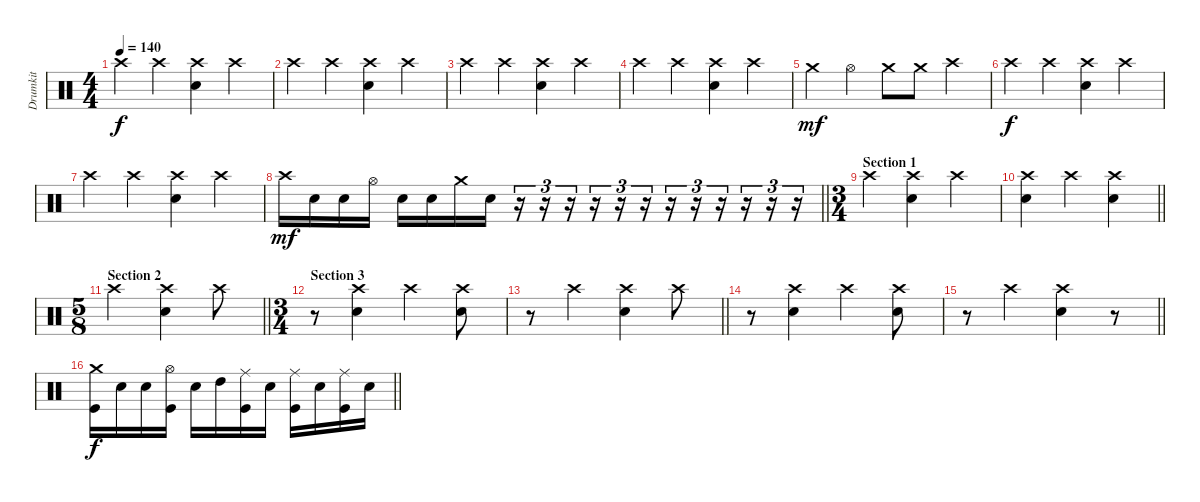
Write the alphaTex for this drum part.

\track ("Drumkit" "Drumkit") {instrument percussion}
\staff {score}
\articulation defaults
\ts (4 4)
\tempo 140
\clef neutral
\ks c "Crash high (hit)".4{dy f} "Crash high (hit)".4
("Crash high (hit)" "Snare (hit) 2").4 "Crash high (hit)".4 |
"Crash high (hit)".4 "Crash high (hit)".4 ("Crash high (hit)" "Snare (hit) 2").4 "Crash high (hit)".4 |
"Crash high (hit)".4 "Crash high (hit)".4 ("Crash high (hit)" "Snare (hit) 2").4 "Crash high (hit)".4 |
"Crash high (hit)".4 "Crash high (hit)".4 ("Crash high (hit)" "Snare (hit) 2").4 "Crash high (hit)".4 |
"Crash medium (hit)".4{dy mf} "Hi-Hat (open)".4 "Crash medium (hit)".8 "Crash medium (hit)".8 "Crash high (hit)".4 |
"Crash high (hit)".4{dy f} "Crash high (hit)".4 ("Crash high (hit)" "Snare (hit) 2").4 "Crash high (hit)".4 |
"Crash high (hit)".4 "Crash high (hit)".4 ("Crash high (hit)" "Snare (hit) 2").4 "Crash high (hit)".4 |
\barLineRight lightlight "Crash high (hit)".16{dy mf} "Snare (hit) 2".16 "Snare (hit) 2".16 "Hi-Hat (open)".16 "Snare (hit) 2".16 "Snare (hit) 2".16 "Crash medium (hit)".16 "Snare (hit) 2".16
r.16{tu (3 2)} r.16{tu (3 2)} r.16{tu (3 2)} r.16{tu (3 2)} r.16{tu (3 2)} r.16{tu (3 2)} r.16{tu (3 2)} r.16{tu (3 2)} r.16{tu (3 2)} r.16{tu (3 2)} r.16{tu (3 2)} r.16{tu (3 2)} |
\ts (3 4)
\section ("" "Section 1")
"Crash high (hit)".4 ("Crash high (hit)" "Snare (hit) 2").4 "Crash high (hit)".4 |
\barLineRight lightlight
("Crash high (hit)" "Snare (hit) 2").4 "Crash high (hit)".4 ("Crash high (hit)" "Snare (hit) 2").4 |
\ts (5 8)
\section ("" "Section 2")
\barLineRight lightlight "Crash high (hit)".4
("Crash high (hit)" "Snare (hit) 2").4 "Crash high (hit)".8 |
\ts (3 4)
\section ("" "Section 3")
r.8 ("Crash high (hit)" "Snare (hit) 2").4 "Crash high (hit)".4 ("Crash high (hit)" "Snare (hit) 2").8 |
\barLineRight lightlight
r.8 "Crash high (hit)".4 ("Crash high (hit)" "Snare (hit) 2").4 "Crash high (hit)".8 |
r.8 ("Crash high (hit)" "Snare (hit) 2").4 "Crash high (hit)".4 ("Crash high (hit)" "Snare (hit) 2").8 |
\barLineRight lightlight
r.8 "Crash high (hit)".4 ("Crash high (hit)" "Snare (hit) 2").4 r.8 |
\barLineRight lightlight
("Crash medium (hit)" "Kick (hit)").16{dy f} "Snare (hit) 2".16 "Snare (hit) 2".16 ("Hi-Hat (open)" "Kick (hit)").16 "Snare (hit) 2".16 "High Tom (hit)".16 ("Kick (hit)" "Ride (middle)").16 "Snare (hit) 2".16 ("Kick (hit)" "Ride (middle)").16 "Snare (hit) 2".16 ("Kick (hit)" "Ride (middle)").16 "Snare (hit) 2".16
